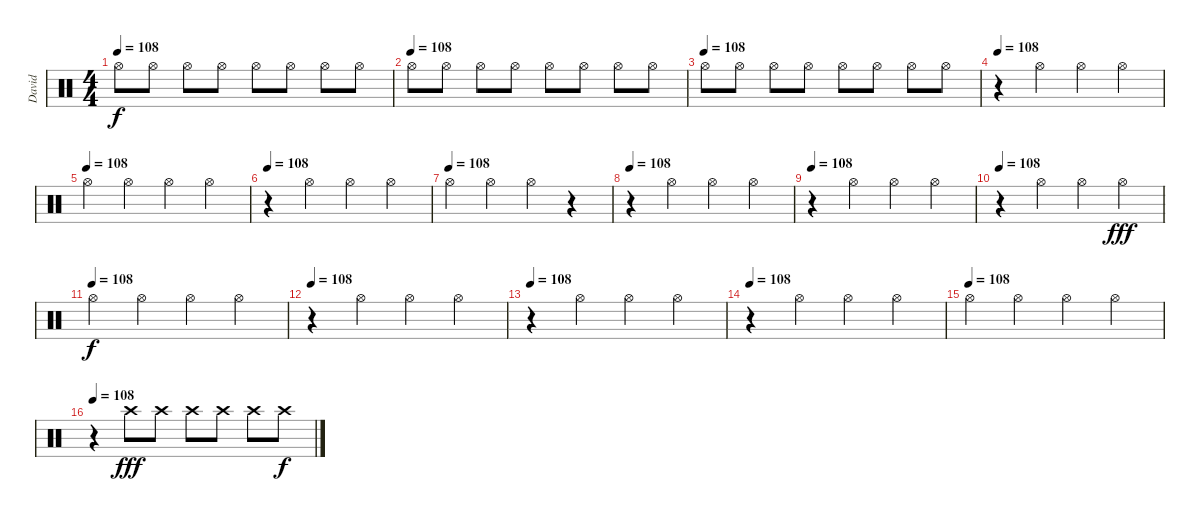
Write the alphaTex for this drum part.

\track ("David" "David") {instrument percussion}
\staff {score}
\articulation defaults
\ts (4 4)
\tempo 108
\clef neutral
\ks c "Hi-Hat (open)".8{dy f} "Hi-Hat (open)".8 "Hi-Hat (open)".8 "Hi-Hat (open)".8 "Hi-Hat (open)".8 "Hi-Hat (open)".8 "Hi-Hat (open)".8 "Hi-Hat (open)".8
|
\tempo (108)
"Hi-Hat (open)".8 "Hi-Hat (open)".8 "Hi-Hat (open)".8 "Hi-Hat (open)".8 "Hi-Hat (open)".8 "Hi-Hat (open)".8 "Hi-Hat (open)".8 "Hi-Hat (open)".8 |
\tempo (108)
"Hi-Hat (open)".8 "Hi-Hat (open)".8 "Hi-Hat (open)".8 "Hi-Hat (open)".8 "Hi-Hat (open)".8 "Hi-Hat (open)".8 "Hi-Hat (open)".8 "Hi-Hat (open)".8 |
\tempo 108
r.4{volume 16} "Hi-Hat (open)".4 "Hi-Hat (open)".4 "Hi-Hat (open)".4 |
\tempo (108)
"Hi-Hat (open)".4 "Hi-Hat (open)".4 "Hi-Hat (open)".4 "Hi-Hat (open)".4 |
\tempo 108
r.4 "Hi-Hat (open)".4 "Hi-Hat (open)".4 "Hi-Hat (open)".4 |
\tempo (108)
"Hi-Hat (open)".4 "Hi-Hat (open)".4 "Hi-Hat (open)".4 r.4 |
\tempo 108
r.4 "Hi-Hat (open)".4 "Hi-Hat (open)".4 "Hi-Hat (open)".4 |
\tempo 108
r.4 "Hi-Hat (open)".4 "Hi-Hat (open)".4 "Hi-Hat (open)".4 |
\tempo 108
r.4 "Hi-Hat (open)".4 "Hi-Hat (open)".4 "Hi-Hat (open)".4{dy fff} |
\tempo (108)
"Hi-Hat (open)".4{dy f} "Hi-Hat (open)".4 "Hi-Hat (open)".4 "Hi-Hat (open)".4 |
\tempo 108
r.4 "Hi-Hat (open)".4 "Hi-Hat (open)".4 "Hi-Hat (open)".4 |
\tempo 108
r.4 "Hi-Hat (open)".4 "Hi-Hat (open)".4 "Hi-Hat (open)".4 |
\tempo 108
r.4 "Hi-Hat (open)".4 "Hi-Hat (open)".4 "Hi-Hat (open)".4 |
\tempo (108)
"Hi-Hat (open)".4 "Hi-Hat (open)".4 "Hi-Hat (open)".4 "Hi-Hat (open)".4 |
\tempo 108
r.4 "Crash high (hit)".8{dy fff} "Crash high (hit)".8 "Crash high (hit)".8 "Crash high (hit)".8 "Crash high (hit)".8 "Crash high (hit)".8{dy f}
